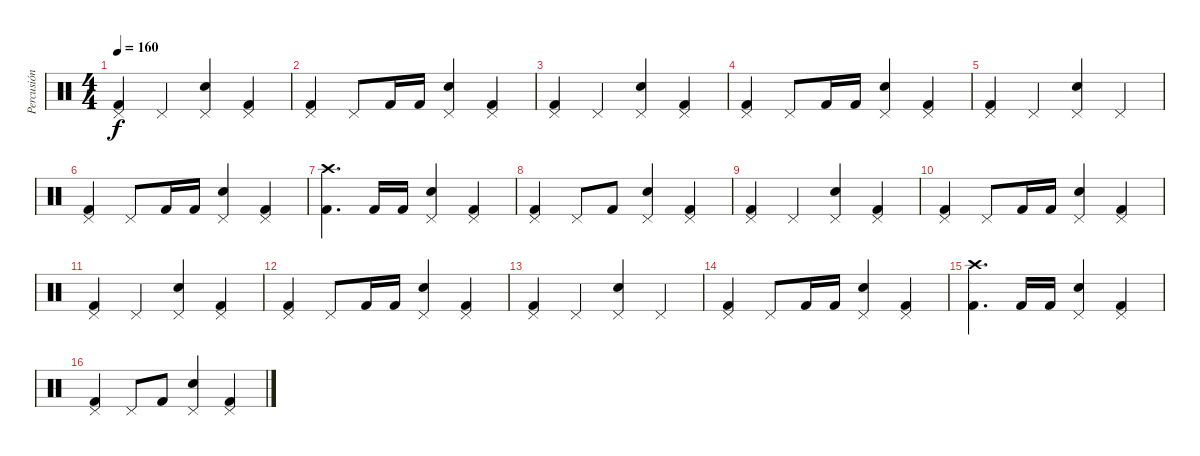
\track ("Percusión" "Percusión") {instrument percussion}
\staff {score}
\articulation defaults
\ts (4 4)
\tempo 160
\clef neutral
\ks c
("Pedal Hi-Hat (hit)" "Kick (hit) 2").4{dy f} "Pedal Hi-Hat (hit)".4 ("Pedal Hi-Hat (hit)" "Snare (hit) 2").4 ("Pedal Hi-Hat (hit)" "Kick (hit) 2").4 |
("Pedal Hi-Hat (hit)" "Kick (hit) 2").4 "Pedal Hi-Hat (hit)".8 "Kick (hit) 2".16 "Kick (hit) 2".16 ("Pedal Hi-Hat (hit)" "Snare (hit) 2").4 ("Pedal Hi-Hat (hit)" "Kick (hit) 2").4 |
("Pedal Hi-Hat (hit)" "Kick (hit) 2").4 "Pedal Hi-Hat (hit)".4 ("Pedal Hi-Hat (hit)" "Snare (hit) 2").4 ("Pedal Hi-Hat (hit)" "Kick (hit) 2").4 |
("Pedal Hi-Hat (hit)" "Kick (hit) 2").4 "Pedal Hi-Hat (hit)".8 "Kick (hit) 2".16 "Kick (hit) 2".16 ("Pedal Hi-Hat (hit)" "Snare (hit) 2").4 ("Pedal Hi-Hat (hit)" "Kick (hit) 2").4 |
("Pedal Hi-Hat (hit)" "Kick (hit) 2").4 "Pedal Hi-Hat (hit)".4 ("Pedal Hi-Hat (hit)" "Snare (hit) 2").4 "Pedal Hi-Hat (hit)".4 |
("Pedal Hi-Hat (hit)" "Kick (hit) 2").4 "Pedal Hi-Hat (hit)".8 "Kick (hit) 2".16 "Kick (hit) 2".16 ("Pedal Hi-Hat (hit)" "Snare (hit) 2").4 ("Pedal Hi-Hat (hit)" "Kick (hit) 2").4 |
("Crash high (hit)" "Kick (hit) 2").4{d} "Kick (hit) 2".16 "Kick (hit) 2".16 ("Pedal Hi-Hat (hit)" "Snare (hit) 2").4 ("Pedal Hi-Hat (hit)" "Kick (hit) 2").4 |
("Pedal Hi-Hat (hit)" "Kick (hit) 2").4 "Pedal Hi-Hat (hit)".8 "Kick (hit) 2".8 ("Pedal Hi-Hat (hit)" "Snare (hit) 2").4 ("Pedal Hi-Hat (hit)" "Kick (hit) 2").4 |
("Pedal Hi-Hat (hit)" "Kick (hit) 2").4 "Pedal Hi-Hat (hit)".4 ("Pedal Hi-Hat (hit)" "Snare (hit) 2").4 ("Pedal Hi-Hat (hit)" "Kick (hit) 2").4 |
("Pedal Hi-Hat (hit)" "Kick (hit) 2").4 "Pedal Hi-Hat (hit)".8 "Kick (hit) 2".16 "Kick (hit) 2".16 ("Pedal Hi-Hat (hit)" "Snare (hit) 2").4 ("Pedal Hi-Hat (hit)" "Kick (hit) 2").4 |
("Pedal Hi-Hat (hit)" "Kick (hit) 2").4 "Pedal Hi-Hat (hit)".4 ("Pedal Hi-Hat (hit)" "Snare (hit) 2").4 ("Pedal Hi-Hat (hit)" "Kick (hit) 2").4 |
("Pedal Hi-Hat (hit)" "Kick (hit) 2").4 "Pedal Hi-Hat (hit)".8 "Kick (hit) 2".16 "Kick (hit) 2".16 ("Pedal Hi-Hat (hit)" "Snare (hit) 2").4 ("Pedal Hi-Hat (hit)" "Kick (hit) 2").4 |
("Pedal Hi-Hat (hit)" "Kick (hit) 2").4 "Pedal Hi-Hat (hit)".4 ("Pedal Hi-Hat (hit)" "Snare (hit) 2").4 "Pedal Hi-Hat (hit)".4 |
("Pedal Hi-Hat (hit)" "Kick (hit) 2").4 "Pedal Hi-Hat (hit)".8 "Kick (hit) 2".16 "Kick (hit) 2".16 ("Pedal Hi-Hat (hit)" "Snare (hit) 2").4 ("Pedal Hi-Hat (hit)" "Kick (hit) 2").4 |
("Crash high (hit)" "Kick (hit) 2").4{d} "Kick (hit) 2".16 "Kick (hit) 2".16 ("Pedal Hi-Hat (hit)" "Snare (hit) 2").4 ("Pedal Hi-Hat (hit)" "Kick (hit) 2").4 |
("Pedal Hi-Hat (hit)" "Kick (hit) 2").4 "Pedal Hi-Hat (hit)".8 "Kick (hit) 2".8 ("Pedal Hi-Hat (hit)" "Snare (hit) 2").4 ("Pedal Hi-Hat (hit)" "Kick (hit) 2").4
